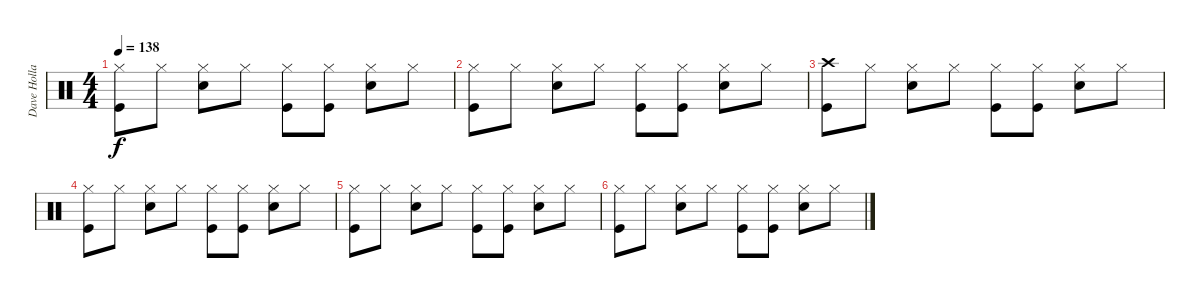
\track ("Dave Holland" "Dave Holla") {instrument percussion}
\staff {score}
\articulation defaults
\ts (4 4)
\tempo 138
\clef neutral
\ks c
("Hi-Hat (closed)" "Kick (hit)").8{dy f} "Hi-Hat (closed)".8 ("Hi-Hat (closed)" "Electric Snare (hit)").8 "Hi-Hat (closed)".8 ("Hi-Hat (closed)" "Kick (hit)").8 ("Hi-Hat (closed)" "Kick (hit)").8 ("Hi-Hat (closed)" "Electric Snare (hit)").8 "Hi-Hat (closed)".8 |
("Hi-Hat (closed)" "Kick (hit)").8 "Hi-Hat (closed)".8 ("Hi-Hat (closed)" "Electric Snare (hit)").8 "Hi-Hat (closed)".8 ("Hi-Hat (closed)" "Kick (hit)").8 ("Hi-Hat (closed)" "Kick (hit)").8 ("Hi-Hat (closed)" "Electric Snare (hit)").8 "Hi-Hat (closed)".8 |
("Crash high (hit)" "Kick (hit)").8 "Hi-Hat (closed)".8 ("Hi-Hat (closed)" "Electric Snare (hit)").8 "Hi-Hat (closed)".8 ("Hi-Hat (closed)" "Kick (hit)").8 ("Hi-Hat (closed)" "Kick (hit)").8 ("Hi-Hat (closed)" "Electric Snare (hit)").8 "Hi-Hat (closed)".8 |
("Hi-Hat (closed)" "Kick (hit)").8 "Hi-Hat (closed)".8 ("Hi-Hat (closed)" "Electric Snare (hit)").8 "Hi-Hat (closed)".8 ("Hi-Hat (closed)" "Kick (hit)").8 ("Hi-Hat (closed)" "Kick (hit)").8 ("Hi-Hat (closed)" "Electric Snare (hit)").8 "Hi-Hat (closed)".8 |
("Hi-Hat (closed)" "Kick (hit)").8 "Hi-Hat (closed)".8 ("Hi-Hat (closed)" "Electric Snare (hit)").8 "Hi-Hat (closed)".8 ("Hi-Hat (closed)" "Kick (hit)").8 ("Hi-Hat (closed)" "Kick (hit)").8 ("Hi-Hat (closed)" "Electric Snare (hit)").8 "Hi-Hat (closed)".8 |
("Hi-Hat (closed)" "Kick (hit)").8 "Hi-Hat (closed)".8 ("Hi-Hat (closed)" "Electric Snare (hit)").8 "Hi-Hat (closed)".8 ("Hi-Hat (closed)" "Kick (hit)").8 ("Hi-Hat (closed)" "Kick (hit)").8 ("Hi-Hat (closed)" "Electric Snare (hit)").8 "Hi-Hat (closed)".8
